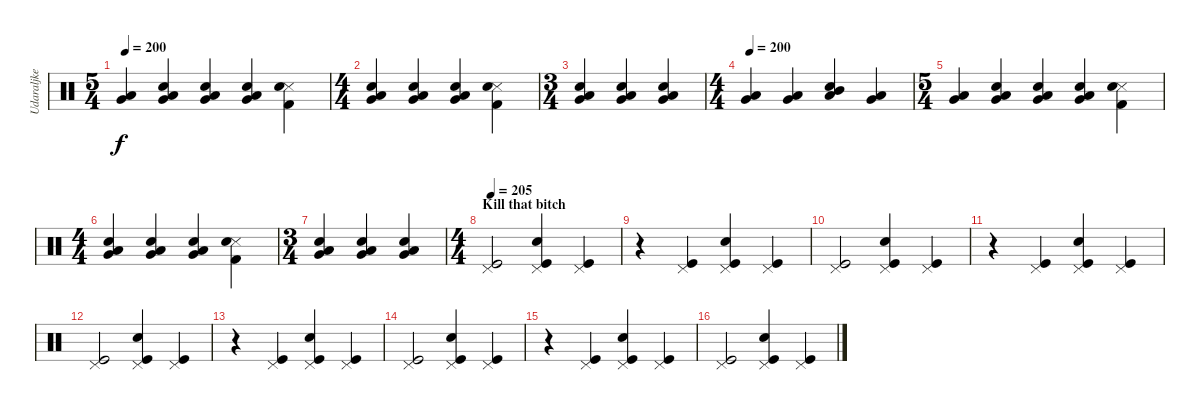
\track ("Udaraljke" "Udaraljke") {instrument percussion}
\staff {score}
\articulation defaults
\ts (5 4)
\tempo 200
\clef neutral
\ks c
("Very Low Tom (hit)" "Low Tom (hit)").4{dy f} ("Very Low Tom (hit)" "Low Floor Tom (hit)" "Snare (hit) 2").4 ("Very Low Tom (hit)" "Low Floor Tom (hit)" "Snare (hit) 2").4 ("Very Low Tom (hit)" "Low Floor Tom (hit)" "Snare (hit) 2").4 ("Kick (hit) 2" "Metronome (hit)" "Snare (hit) 2").4 |
\ts (4 4)
("Very Low Tom (hit)" "Low Floor Tom (hit)" "Snare (hit) 2").4 ("Very Low Tom (hit)" "Low Floor Tom (hit)" "Snare (hit) 2").4 ("Very Low Tom (hit)" "Low Floor Tom (hit)" "Snare (hit) 2").4 ("Kick (hit) 2" "Metronome (hit)" "Snare (hit) 2").4 |
\ts (3 4)
("Very Low Tom (hit)" "Low Floor Tom (hit)" "Snare (hit) 2").4 ("Very Low Tom (hit)" "Low Floor Tom (hit)" "Snare (hit) 2").4 ("Very Low Tom (hit)" "Low Floor Tom (hit)" "Snare (hit) 2").4 |
\ts (4 4)
\tempo 200
("Very Low Tom (hit)" "Low Tom (hit)").4{volume 10 balance 8} ("Very Low Tom (hit)" "Low Tom (hit)").4 ("Mid Tom (hit)" "Low Tom (hit)" "Snare (hit) 2").4 ("Very Low Tom (hit)" "Low Tom (hit)").4 |
\ts (5 4)
("Very Low Tom (hit)" "Low Tom (hit)").4 ("Very Low Tom (hit)" "Low Floor Tom (hit)" "Snare (hit) 2").4 ("Very Low Tom (hit)" "Low Floor Tom (hit)" "Snare (hit) 2").4 ("Very Low Tom (hit)" "Low Floor Tom (hit)" "Snare (hit) 2").4 ("Kick (hit) 2" "Metronome (hit)" "Snare (hit) 2").4 |
\ts (4 4)
("Very Low Tom (hit)" "Low Floor Tom (hit)" "Snare (hit) 2").4 ("Very Low Tom (hit)" "Low Floor Tom (hit)" "Snare (hit) 2").4 ("Very Low Tom (hit)" "Low Floor Tom (hit)" "Snare (hit) 2").4 ("Kick (hit) 2" "Metronome (hit)" "Snare (hit) 2").4 |
\ts (3 4)
("Very Low Tom (hit)" "Low Floor Tom (hit)" "Snare (hit) 2").4 ("Very Low Tom (hit)" "Low Floor Tom (hit)" "Snare (hit) 2").4 ("Very Low Tom (hit)" "Low Floor Tom (hit)" "Snare (hit) 2").4 |
\ts (4 4)
\section ("" "Kill that bitch")
\tempo 215
\tempo 205
("Kick (hit)" "Pedal Hi-Hat (hit)").2 ("Kick (hit)" "Snare (hit) 2" "Pedal Hi-Hat (hit)").4 ("Kick (hit)" "Pedal Hi-Hat (hit)").4 |
r.4 ("Kick (hit)" "Pedal Hi-Hat (hit)").4 ("Kick (hit)" "Snare (hit) 2" "Pedal Hi-Hat (hit)").4 ("Kick (hit)" "Pedal Hi-Hat (hit)").4 |
("Kick (hit)" "Pedal Hi-Hat (hit)").2 ("Kick (hit)" "Snare (hit) 2" "Pedal Hi-Hat (hit)").4 ("Kick (hit)" "Pedal Hi-Hat (hit)").4 |
r.4 ("Kick (hit)" "Pedal Hi-Hat (hit)").4 ("Kick (hit)" "Snare (hit) 2" "Pedal Hi-Hat (hit)").4 ("Kick (hit)" "Pedal Hi-Hat (hit)").4 |
("Kick (hit)" "Pedal Hi-Hat (hit)").2 ("Kick (hit)" "Snare (hit) 2" "Pedal Hi-Hat (hit)").4 ("Kick (hit)" "Pedal Hi-Hat (hit)").4 |
r.4 ("Kick (hit)" "Pedal Hi-Hat (hit)").4 ("Kick (hit)" "Snare (hit) 2" "Pedal Hi-Hat (hit)").4 ("Kick (hit)" "Pedal Hi-Hat (hit)").4 |
("Kick (hit)" "Pedal Hi-Hat (hit)").2 ("Kick (hit)" "Snare (hit) 2" "Pedal Hi-Hat (hit)").4 ("Kick (hit)" "Pedal Hi-Hat (hit)").4 |
r.4 ("Kick (hit)" "Pedal Hi-Hat (hit)").4 ("Kick (hit)" "Snare (hit) 2" "Pedal Hi-Hat (hit)").4 ("Kick (hit)" "Pedal Hi-Hat (hit)").4 |
("Kick (hit)" "Pedal Hi-Hat (hit)").2 ("Kick (hit)" "Snare (hit) 2" "Pedal Hi-Hat (hit)").4 ("Kick (hit)" "Pedal Hi-Hat (hit)").4
